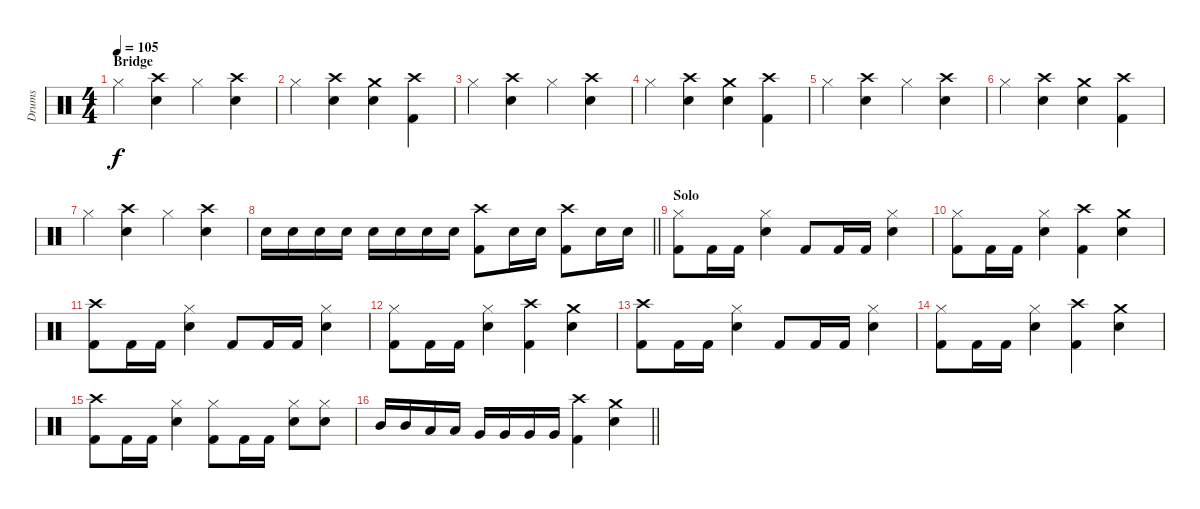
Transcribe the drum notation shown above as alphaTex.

\track ("Drums" "Drums") {instrument percussion}
\staff {score}
\articulation defaults
\ts (4 4)
\section ("" "Bridge")
\tempo 105
\clef neutral
\ks c "Hi-Hat (closed)".4{dy f}
("Crash high (hit)" "Snare (hit) 2").4 "Hi-Hat (closed)".4 ("Crash high (hit)" "Snare (hit) 2").4 |
"Hi-Hat (closed)".4 ("Crash high (hit)" "Snare (hit) 2").4 ("Crash medium (hit)" "Snare (hit) 2").4 ("Crash high (hit)" "Kick (hit) 2").4 |
"Hi-Hat (closed)".4 ("Crash high (hit)" "Snare (hit) 2").4 "Hi-Hat (closed)".4 ("Crash high (hit)" "Snare (hit) 2").4 |
"Hi-Hat (closed)".4 ("Crash high (hit)" "Snare (hit) 2").4 ("Crash medium (hit)" "Snare (hit) 2").4 ("Crash high (hit)" "Kick (hit) 2").4 |
"Hi-Hat (closed)".4 ("Crash high (hit)" "Snare (hit) 2").4 "Hi-Hat (closed)".4 ("Crash high (hit)" "Snare (hit) 2").4 |
"Hi-Hat (closed)".4 ("Crash high (hit)" "Snare (hit) 2").4 ("Crash medium (hit)" "Snare (hit) 2").4 ("Crash high (hit)" "Kick (hit) 2").4 |
"Hi-Hat (closed)".4 ("Crash high (hit)" "Snare (hit) 2").4 "Hi-Hat (closed)".4 ("Crash high (hit)" "Snare (hit) 2").4 |
\barLineRight lightlight "Snare (hit) 2".16 "Snare (hit) 2".16 "Snare (hit) 2".16 "Snare (hit) 2".16 "Snare (hit) 2".16 "Snare (hit) 2".16 "Snare (hit) 2".16 "Snare (hit) 2".16
("Crash high (hit)" "Kick (hit) 2").8 "Snare (hit) 2".16 "Snare (hit) 2".16 ("Crash high (hit)" "Kick (hit) 2").8 "Snare (hit) 2".16 "Snare (hit) 2".16 |
\section ("" "Solo")
("Hi-Hat (closed)" "Kick (hit) 2").8 "Kick (hit) 2".16 "Kick (hit) 2".16 ("Hi-Hat (closed)" "Snare (hit) 2").4 "Kick (hit) 2".8 "Kick (hit) 2".16 "Kick (hit) 2".16 ("Hi-Hat (closed)" "Snare (hit) 2").4 |
("Hi-Hat (closed)" "Kick (hit) 2").8 "Kick (hit) 2".16 "Kick (hit) 2".16 ("Hi-Hat (closed)" "Snare (hit) 2").4 ("Crash high (hit)" "Kick (hit) 2").4 ("Crash medium (hit)" "Snare (hit) 2").4 |
("Crash high (hit)" "Kick (hit) 2").8 "Kick (hit) 2".16 "Kick (hit) 2".16 ("Hi-Hat (closed)" "Snare (hit) 2").4 "Kick (hit) 2".8 "Kick (hit) 2".16 "Kick (hit) 2".16 ("Hi-Hat (closed)" "Snare (hit) 2").4 |
("Hi-Hat (closed)" "Kick (hit) 2").8 "Kick (hit) 2".16 "Kick (hit) 2".16 ("Hi-Hat (closed)" "Snare (hit) 2").4 ("Crash high (hit)" "Kick (hit) 2").4 ("Crash medium (hit)" "Snare (hit) 2").4 |
("Crash high (hit)" "Kick (hit) 2").8 "Kick (hit) 2".16 "Kick (hit) 2".16 ("Hi-Hat (closed)" "Snare (hit) 2").4 "Kick (hit) 2".8 "Kick (hit) 2".16 "Kick (hit) 2".16 ("Hi-Hat (closed)" "Snare (hit) 2").4 |
("Hi-Hat (closed)" "Kick (hit) 2").8 "Kick (hit) 2".16 "Kick (hit) 2".16 ("Hi-Hat (closed)" "Snare (hit) 2").4 ("Crash high (hit)" "Kick (hit) 2").4 ("Crash medium (hit)" "Snare (hit) 2").4 |
("Crash high (hit)" "Kick (hit) 2").8 "Kick (hit) 2".16 "Kick (hit) 2".16 ("Hi-Hat (closed)" "Snare (hit) 2").4 ("Hi-Hat (closed)" "Kick (hit) 2").8 "Kick (hit) 2".16 "Kick (hit) 2".16 ("Hi-Hat (closed)" "Snare (hit) 2").8 ("Hi-Hat (closed)" "Snare (hit) 2").8 |
\barLineRight lightlight "Mid Tom (hit)".16 "Mid Tom (hit)".16 "Low Tom (hit)".16 "Low Tom (hit)".16 "Very Low Tom (hit)".16 "Very Low Tom (hit)".16 "Very Low Tom (hit)".16 "Very Low Tom (hit)".16
("Crash high (hit)" "Kick (hit) 2").4 ("Crash medium (hit)" "Snare (hit) 2").4
